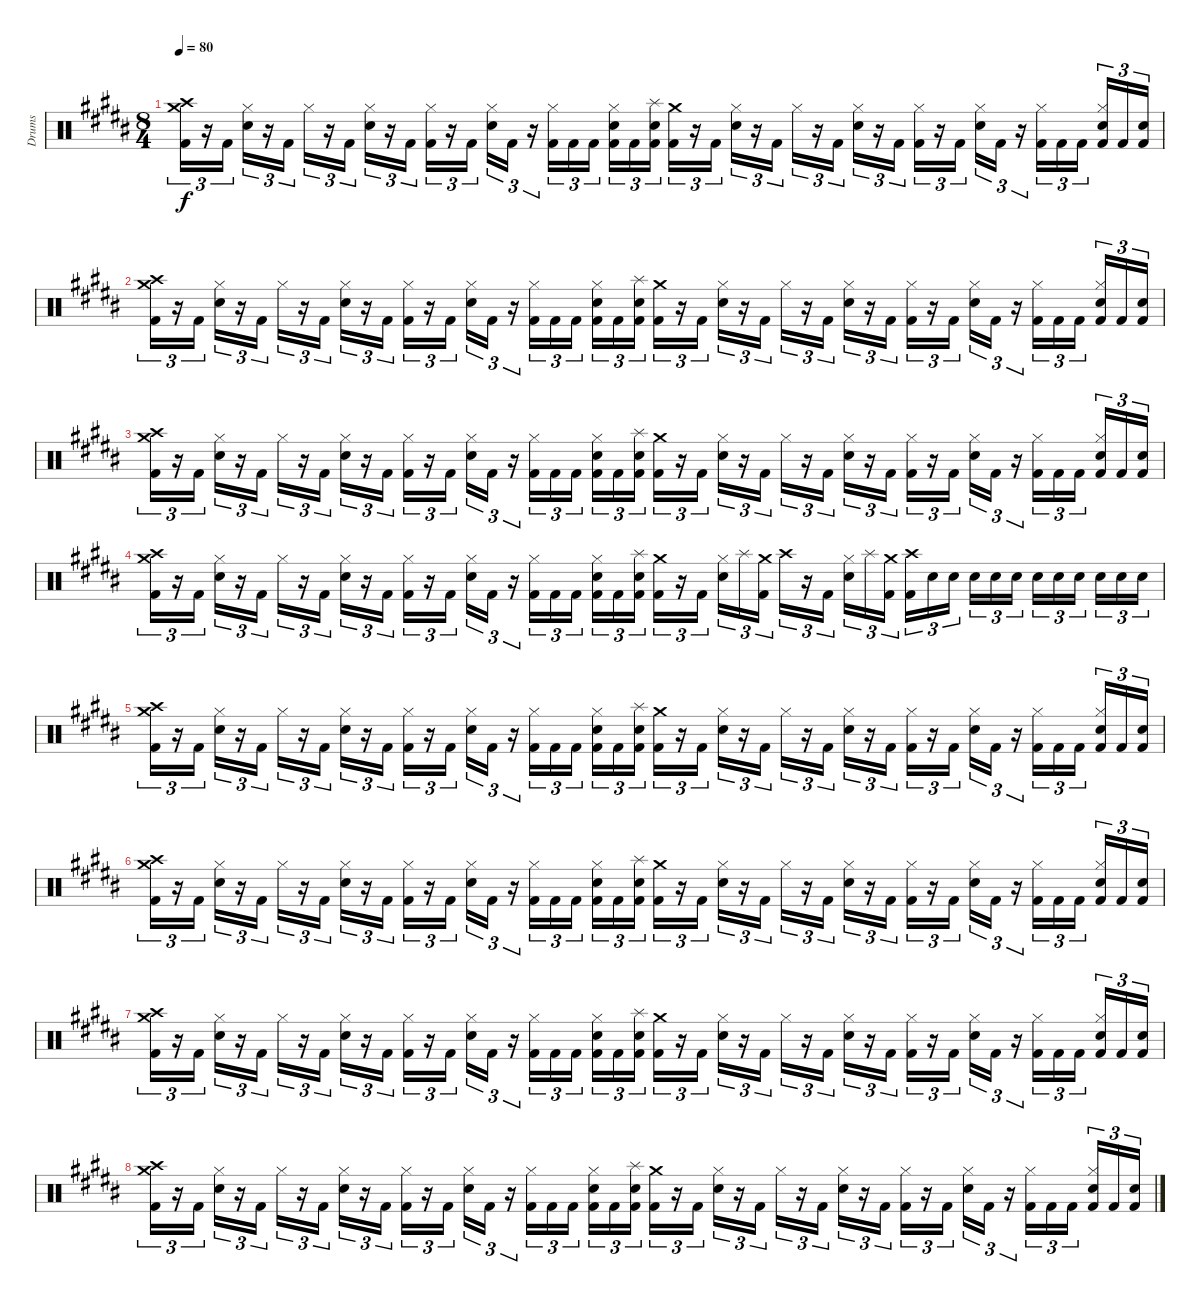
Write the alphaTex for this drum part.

\track ("Drums" "Drums") {instrument percussion}
\staff {score}
\articulation defaults
\ts (8 4)
\tempo 80
\clef neutral
\ks g#minor
("Crash medium (hit)" "Crash high (hit)" "Kick (hit) 2").16{tu (3 2) dy f} r.16{tu (3 2)} "Kick (hit) 2".16{tu (3 2)} ("Hi-Hat (closed)" "Snare (hit) 2").16{tu (3 2)} r.16{tu (3 2)} "Kick (hit) 2".16{tu (3 2)} "Hi-Hat (closed)".16{tu (3 2)} r.16{tu (3 2)} "Kick (hit) 2".16{tu (3 2)} ("Hi-Hat (closed)" "Snare (hit) 2").16{tu (3 2)} r.16{tu (3 2)} "Kick (hit) 2".16{tu (3 2)} ("Hi-Hat (closed)" "Kick (hit) 2").16{tu (3 2)} r.16{tu (3 2)} "Kick (hit) 2".16{tu (3 2)} ("Hi-Hat (closed)" "Snare (hit) 2").16{tu (3 2)} "Kick (hit) 2".16{tu (3 2)} r.16{tu (3 2)} ("Hi-Hat (closed)" "Kick (hit) 2").16{tu (3 2)} "Kick (hit) 2".16{tu (3 2)} "Kick (hit) 2".16{tu (3 2)} ("Hi-Hat (closed)" "Snare (hit) 2" "Kick (hit) 2").16{tu (3 2)} "Kick (hit) 2".16{tu (3 2)} ("Splash (hit)" "Snare (hit) 2" "Kick (hit) 2").16{tu (3 2)} ("Crash medium (hit)" "Kick (hit) 2").16{tu (3 2)} r.16{tu (3 2)} "Kick (hit) 2".16{tu (3 2)} ("Hi-Hat (closed)" "Snare (hit) 2").16{tu (3 2)} r.16{tu (3 2)} "Kick (hit) 2".16{tu (3 2)} "Hi-Hat (closed)".16{tu (3 2)} r.16{tu (3 2)} "Kick (hit) 2".16{tu (3 2)} ("Hi-Hat (closed)" "Snare (hit) 2").16{tu (3 2)} r.16{tu (3 2)} "Kick (hit) 2".16{tu (3 2)} ("Hi-Hat (closed)" "Kick (hit) 2").16{tu (3 2)} r.16{tu (3 2)} "Kick (hit) 2".16{tu (3 2)} ("Hi-Hat (closed)" "Snare (hit) 2").16{tu (3 2)} "Kick (hit) 2".16{tu (3 2)} r.16{tu (3 2)} ("Hi-Hat (closed)" "Kick (hit) 2").16{tu (3 2)} "Kick (hit) 2".16{tu (3 2)} "Kick (hit) 2".16{tu (3 2)} ("Hi-Hat (closed)" "Snare (hit) 2" "Kick (hit) 2").16{tu (3 2)} "Kick (hit) 2".16{tu (3 2)} ("Snare (hit) 2" "Kick (hit) 2").16{tu (3 2)} |
("Crash medium (hit)" "Crash high (hit)" "Kick (hit) 2").16{tu (3 2)} r.16{tu (3 2)} "Kick (hit) 2".16{tu (3 2)} ("Hi-Hat (closed)" "Snare (hit) 2").16{tu (3 2)} r.16{tu (3 2)} "Kick (hit) 2".16{tu (3 2)} "Hi-Hat (closed)".16{tu (3 2)} r.16{tu (3 2)} "Kick (hit) 2".16{tu (3 2)} ("Hi-Hat (closed)" "Snare (hit) 2").16{tu (3 2)} r.16{tu (3 2)} "Kick (hit) 2".16{tu (3 2)} ("Hi-Hat (closed)" "Kick (hit) 2").16{tu (3 2)} r.16{tu (3 2)} "Kick (hit) 2".16{tu (3 2)} ("Hi-Hat (closed)" "Snare (hit) 2").16{tu (3 2)} "Kick (hit) 2".16{tu (3 2)} r.16{tu (3 2)} ("Hi-Hat (closed)" "Kick (hit) 2").16{tu (3 2)} "Kick (hit) 2".16{tu (3 2)} "Kick (hit) 2".16{tu (3 2)} ("Hi-Hat (closed)" "Snare (hit) 2" "Kick (hit) 2").16{tu (3 2)} "Kick (hit) 2".16{tu (3 2)} ("Splash (hit)" "Snare (hit) 2" "Kick (hit) 2").16{tu (3 2)} ("Crash medium (hit)" "Kick (hit) 2").16{tu (3 2)} r.16{tu (3 2)} "Kick (hit) 2".16{tu (3 2)} ("Hi-Hat (closed)" "Snare (hit) 2").16{tu (3 2)} r.16{tu (3 2)} "Kick (hit) 2".16{tu (3 2)} "Hi-Hat (closed)".16{tu (3 2)} r.16{tu (3 2)} "Kick (hit) 2".16{tu (3 2)} ("Hi-Hat (closed)" "Snare (hit) 2").16{tu (3 2)} r.16{tu (3 2)} "Kick (hit) 2".16{tu (3 2)} ("Hi-Hat (closed)" "Kick (hit) 2").16{tu (3 2)} r.16{tu (3 2)} "Kick (hit) 2".16{tu (3 2)} ("Hi-Hat (closed)" "Snare (hit) 2").16{tu (3 2)} "Kick (hit) 2".16{tu (3 2)} r.16{tu (3 2)} ("Hi-Hat (closed)" "Kick (hit) 2").16{tu (3 2)} "Kick (hit) 2".16{tu (3 2)} "Kick (hit) 2".16{tu (3 2)} ("Hi-Hat (closed)" "Snare (hit) 2" "Kick (hit) 2").16{tu (3 2)} "Kick (hit) 2".16{tu (3 2)} ("Snare (hit) 2" "Kick (hit) 2").16{tu (3 2)} |
("Crash medium (hit)" "Crash high (hit)" "Kick (hit) 2").16{tu (3 2)} r.16{tu (3 2)} "Kick (hit) 2".16{tu (3 2)} ("Hi-Hat (closed)" "Snare (hit) 2").16{tu (3 2)} r.16{tu (3 2)} "Kick (hit) 2".16{tu (3 2)} "Hi-Hat (closed)".16{tu (3 2)} r.16{tu (3 2)} "Kick (hit) 2".16{tu (3 2)} ("Hi-Hat (closed)" "Snare (hit) 2").16{tu (3 2)} r.16{tu (3 2)} "Kick (hit) 2".16{tu (3 2)} ("Hi-Hat (closed)" "Kick (hit) 2").16{tu (3 2)} r.16{tu (3 2)} "Kick (hit) 2".16{tu (3 2)} ("Hi-Hat (closed)" "Snare (hit) 2").16{tu (3 2)} "Kick (hit) 2".16{tu (3 2)} r.16{tu (3 2)} ("Hi-Hat (closed)" "Kick (hit) 2").16{tu (3 2)} "Kick (hit) 2".16{tu (3 2)} "Kick (hit) 2".16{tu (3 2)} ("Hi-Hat (closed)" "Snare (hit) 2" "Kick (hit) 2").16{tu (3 2)} "Kick (hit) 2".16{tu (3 2)} ("Splash (hit)" "Snare (hit) 2" "Kick (hit) 2").16{tu (3 2)} ("Crash medium (hit)" "Kick (hit) 2").16{tu (3 2)} r.16{tu (3 2)} "Kick (hit) 2".16{tu (3 2)} ("Hi-Hat (closed)" "Snare (hit) 2").16{tu (3 2)} r.16{tu (3 2)} "Kick (hit) 2".16{tu (3 2)} "Hi-Hat (closed)".16{tu (3 2)} r.16{tu (3 2)} "Kick (hit) 2".16{tu (3 2)} ("Hi-Hat (closed)" "Snare (hit) 2").16{tu (3 2)} r.16{tu (3 2)} "Kick (hit) 2".16{tu (3 2)} ("Hi-Hat (closed)" "Kick (hit) 2").16{tu (3 2)} r.16{tu (3 2)} "Kick (hit) 2".16{tu (3 2)} ("Hi-Hat (closed)" "Snare (hit) 2").16{tu (3 2)} "Kick (hit) 2".16{tu (3 2)} r.16{tu (3 2)} ("Hi-Hat (closed)" "Kick (hit) 2").16{tu (3 2)} "Kick (hit) 2".16{tu (3 2)} "Kick (hit) 2".16{tu (3 2)} ("Hi-Hat (closed)" "Snare (hit) 2" "Kick (hit) 2").16{tu (3 2)} "Kick (hit) 2".16{tu (3 2)} ("Snare (hit) 2" "Kick (hit) 2").16{tu (3 2)} |
("Crash medium (hit)" "Crash high (hit)" "Kick (hit) 2").16{tu (3 2)} r.16{tu (3 2)} "Kick (hit) 2".16{tu (3 2)} ("Hi-Hat (closed)" "Snare (hit) 2").16{tu (3 2)} r.16{tu (3 2)} "Kick (hit) 2".16{tu (3 2)} "Hi-Hat (closed)".16{tu (3 2)} r.16{tu (3 2)} "Kick (hit) 2".16{tu (3 2)} ("Hi-Hat (closed)" "Snare (hit) 2").16{tu (3 2)} r.16{tu (3 2)} "Kick (hit) 2".16{tu (3 2)} ("Hi-Hat (closed)" "Kick (hit) 2").16{tu (3 2)} r.16{tu (3 2)} "Kick (hit) 2".16{tu (3 2)} ("Hi-Hat (closed)" "Snare (hit) 2").16{tu (3 2)} "Kick (hit) 2".16{tu (3 2)} r.16{tu (3 2)} ("Hi-Hat (closed)" "Kick (hit) 2").16{tu (3 2)} "Kick (hit) 2".16{tu (3 2)} "Kick (hit) 2".16{tu (3 2)} ("Hi-Hat (closed)" "Snare (hit) 2" "Kick (hit) 2").16{tu (3 2)} "Kick (hit) 2".16{tu (3 2)} ("Splash (hit)" "Snare (hit) 2" "Kick (hit) 2").16{tu (3 2)} ("Crash medium (hit)" "Kick (hit) 2").16{tu (3 2)} r.16{tu (3 2)} "Kick (hit) 2".16{tu (3 2)} ("Hi-Hat (closed)" "Snare (hit) 2").16{tu (3 2)} "Splash (hit)".16{tu (3 2)} ("Crash medium (hit)" "Kick (hit) 2").16{tu (3 2)} "Crash high (hit)".16{tu (3 2)} r.16{tu (3 2)} "Kick (hit) 2".16{tu (3 2)} ("Hi-Hat (closed)" "Snare (hit) 2").16{tu (3 2)} "Splash (hit)".16{tu (3 2)} ("Crash medium (hit)" "Kick (hit) 2").16{tu (3 2)} ("Crash high (hit)" "Kick (hit) 2").16{tu (3 2)} "Snare (hit) 2".16{tu (3 2)} "Snare (hit) 2".16{tu (3 2)} "Snare (hit) 2".16{tu (3 2)} "Snare (hit) 2".16{tu (3 2)} "Snare (hit) 2".16{tu (3 2)} "Snare (hit) 2".16{tu (3 2)} "Snare (hit) 2".16{tu (3 2)} "Snare (hit) 2".16{tu (3 2)} "Snare (hit) 2".16{tu (3 2)} "Snare (hit) 2".16{tu (3 2)} "Snare (hit) 2".16{tu (3 2)} |
("Crash medium (hit)" "Crash high (hit)" "Kick (hit) 2").16{tu (3 2)} r.16{tu (3 2)} "Kick (hit) 2".16{tu (3 2)} ("Hi-Hat (closed)" "Snare (hit) 2").16{tu (3 2)} r.16{tu (3 2)} "Kick (hit) 2".16{tu (3 2)} "Hi-Hat (closed)".16{tu (3 2)} r.16{tu (3 2)} "Kick (hit) 2".16{tu (3 2)} ("Hi-Hat (closed)" "Snare (hit) 2").16{tu (3 2)} r.16{tu (3 2)} "Kick (hit) 2".16{tu (3 2)} ("Hi-Hat (closed)" "Kick (hit) 2").16{tu (3 2)} r.16{tu (3 2)} "Kick (hit) 2".16{tu (3 2)} ("Hi-Hat (closed)" "Snare (hit) 2").16{tu (3 2)} "Kick (hit) 2".16{tu (3 2)} r.16{tu (3 2)} ("Hi-Hat (closed)" "Kick (hit) 2").16{tu (3 2)} "Kick (hit) 2".16{tu (3 2)} "Kick (hit) 2".16{tu (3 2)} ("Hi-Hat (closed)" "Snare (hit) 2" "Kick (hit) 2").16{tu (3 2)} "Kick (hit) 2".16{tu (3 2)} ("Splash (hit)" "Snare (hit) 2" "Kick (hit) 2").16{tu (3 2)} ("Crash medium (hit)" "Kick (hit) 2").16{tu (3 2)} r.16{tu (3 2)} "Kick (hit) 2".16{tu (3 2)} ("Hi-Hat (closed)" "Snare (hit) 2").16{tu (3 2)} r.16{tu (3 2)} "Kick (hit) 2".16{tu (3 2)} "Hi-Hat (closed)".16{tu (3 2)} r.16{tu (3 2)} "Kick (hit) 2".16{tu (3 2)} ("Hi-Hat (closed)" "Snare (hit) 2").16{tu (3 2)} r.16{tu (3 2)} "Kick (hit) 2".16{tu (3 2)} ("Hi-Hat (closed)" "Kick (hit) 2").16{tu (3 2)} r.16{tu (3 2)} "Kick (hit) 2".16{tu (3 2)} ("Hi-Hat (closed)" "Snare (hit) 2").16{tu (3 2)} "Kick (hit) 2".16{tu (3 2)} r.16{tu (3 2)} ("Hi-Hat (closed)" "Kick (hit) 2").16{tu (3 2)} "Kick (hit) 2".16{tu (3 2)} "Kick (hit) 2".16{tu (3 2)} ("Hi-Hat (closed)" "Snare (hit) 2" "Kick (hit) 2").16{tu (3 2)} "Kick (hit) 2".16{tu (3 2)} ("Snare (hit) 2" "Kick (hit) 2").16{tu (3 2)} |
("Crash medium (hit)" "Crash high (hit)" "Kick (hit) 2").16{tu (3 2)} r.16{tu (3 2)} "Kick (hit) 2".16{tu (3 2)} ("Hi-Hat (closed)" "Snare (hit) 2").16{tu (3 2)} r.16{tu (3 2)} "Kick (hit) 2".16{tu (3 2)} "Hi-Hat (closed)".16{tu (3 2)} r.16{tu (3 2)} "Kick (hit) 2".16{tu (3 2)} ("Hi-Hat (closed)" "Snare (hit) 2").16{tu (3 2)} r.16{tu (3 2)} "Kick (hit) 2".16{tu (3 2)} ("Hi-Hat (closed)" "Kick (hit) 2").16{tu (3 2)} r.16{tu (3 2)} "Kick (hit) 2".16{tu (3 2)} ("Hi-Hat (closed)" "Snare (hit) 2").16{tu (3 2)} "Kick (hit) 2".16{tu (3 2)} r.16{tu (3 2)} ("Hi-Hat (closed)" "Kick (hit) 2").16{tu (3 2)} "Kick (hit) 2".16{tu (3 2)} "Kick (hit) 2".16{tu (3 2)} ("Hi-Hat (closed)" "Snare (hit) 2" "Kick (hit) 2").16{tu (3 2)} "Kick (hit) 2".16{tu (3 2)} ("Splash (hit)" "Snare (hit) 2" "Kick (hit) 2").16{tu (3 2)} ("Crash medium (hit)" "Kick (hit) 2").16{tu (3 2)} r.16{tu (3 2)} "Kick (hit) 2".16{tu (3 2)} ("Hi-Hat (closed)" "Snare (hit) 2").16{tu (3 2)} r.16{tu (3 2)} "Kick (hit) 2".16{tu (3 2)} "Hi-Hat (closed)".16{tu (3 2)} r.16{tu (3 2)} "Kick (hit) 2".16{tu (3 2)} ("Hi-Hat (closed)" "Snare (hit) 2").16{tu (3 2)} r.16{tu (3 2)} "Kick (hit) 2".16{tu (3 2)} ("Hi-Hat (closed)" "Kick (hit) 2").16{tu (3 2)} r.16{tu (3 2)} "Kick (hit) 2".16{tu (3 2)} ("Hi-Hat (closed)" "Snare (hit) 2").16{tu (3 2)} "Kick (hit) 2".16{tu (3 2)} r.16{tu (3 2)} ("Hi-Hat (closed)" "Kick (hit) 2").16{tu (3 2)} "Kick (hit) 2".16{tu (3 2)} "Kick (hit) 2".16{tu (3 2)} ("Hi-Hat (closed)" "Snare (hit) 2" "Kick (hit) 2").16{tu (3 2)} "Kick (hit) 2".16{tu (3 2)} ("Snare (hit) 2" "Kick (hit) 2").16{tu (3 2)} |
("Crash medium (hit)" "Crash high (hit)" "Kick (hit) 2").16{tu (3 2)} r.16{tu (3 2)} "Kick (hit) 2".16{tu (3 2)} ("Hi-Hat (closed)" "Snare (hit) 2").16{tu (3 2)} r.16{tu (3 2)} "Kick (hit) 2".16{tu (3 2)} "Hi-Hat (closed)".16{tu (3 2)} r.16{tu (3 2)} "Kick (hit) 2".16{tu (3 2)} ("Hi-Hat (closed)" "Snare (hit) 2").16{tu (3 2)} r.16{tu (3 2)} "Kick (hit) 2".16{tu (3 2)} ("Hi-Hat (closed)" "Kick (hit) 2").16{tu (3 2)} r.16{tu (3 2)} "Kick (hit) 2".16{tu (3 2)} ("Hi-Hat (closed)" "Snare (hit) 2").16{tu (3 2)} "Kick (hit) 2".16{tu (3 2)} r.16{tu (3 2)} ("Hi-Hat (closed)" "Kick (hit) 2").16{tu (3 2)} "Kick (hit) 2".16{tu (3 2)} "Kick (hit) 2".16{tu (3 2)} ("Hi-Hat (closed)" "Snare (hit) 2" "Kick (hit) 2").16{tu (3 2)} "Kick (hit) 2".16{tu (3 2)} ("Splash (hit)" "Snare (hit) 2" "Kick (hit) 2").16{tu (3 2)} ("Crash medium (hit)" "Kick (hit) 2").16{tu (3 2)} r.16{tu (3 2)} "Kick (hit) 2".16{tu (3 2)} ("Hi-Hat (closed)" "Snare (hit) 2").16{tu (3 2)} r.16{tu (3 2)} "Kick (hit) 2".16{tu (3 2)} "Hi-Hat (closed)".16{tu (3 2)} r.16{tu (3 2)} "Kick (hit) 2".16{tu (3 2)} ("Hi-Hat (closed)" "Snare (hit) 2").16{tu (3 2)} r.16{tu (3 2)} "Kick (hit) 2".16{tu (3 2)} ("Hi-Hat (closed)" "Kick (hit) 2").16{tu (3 2)} r.16{tu (3 2)} "Kick (hit) 2".16{tu (3 2)} ("Hi-Hat (closed)" "Snare (hit) 2").16{tu (3 2)} "Kick (hit) 2".16{tu (3 2)} r.16{tu (3 2)} ("Hi-Hat (closed)" "Kick (hit) 2").16{tu (3 2)} "Kick (hit) 2".16{tu (3 2)} "Kick (hit) 2".16{tu (3 2)} ("Hi-Hat (closed)" "Snare (hit) 2" "Kick (hit) 2").16{tu (3 2)} "Kick (hit) 2".16{tu (3 2)} ("Snare (hit) 2" "Kick (hit) 2").16{tu (3 2)} |
("Crash medium (hit)" "Crash high (hit)" "Kick (hit) 2").16{tu (3 2)} r.16{tu (3 2)} "Kick (hit) 2".16{tu (3 2)} ("Hi-Hat (closed)" "Snare (hit) 2").16{tu (3 2)} r.16{tu (3 2)} "Kick (hit) 2".16{tu (3 2)} "Hi-Hat (closed)".16{tu (3 2)} r.16{tu (3 2)} "Kick (hit) 2".16{tu (3 2)} ("Hi-Hat (closed)" "Snare (hit) 2").16{tu (3 2)} r.16{tu (3 2)} "Kick (hit) 2".16{tu (3 2)} ("Hi-Hat (closed)" "Kick (hit) 2").16{tu (3 2)} r.16{tu (3 2)} "Kick (hit) 2".16{tu (3 2)} ("Hi-Hat (closed)" "Snare (hit) 2").16{tu (3 2)} "Kick (hit) 2".16{tu (3 2)} r.16{tu (3 2)} ("Hi-Hat (closed)" "Kick (hit) 2").16{tu (3 2)} "Kick (hit) 2".16{tu (3 2)} "Kick (hit) 2".16{tu (3 2)} ("Hi-Hat (closed)" "Snare (hit) 2" "Kick (hit) 2").16{tu (3 2)} "Kick (hit) 2".16{tu (3 2)} ("Splash (hit)" "Snare (hit) 2" "Kick (hit) 2").16{tu (3 2)} ("Crash medium (hit)" "Kick (hit) 2").16{tu (3 2)} r.16{tu (3 2)} "Kick (hit) 2".16{tu (3 2)} ("Hi-Hat (closed)" "Snare (hit) 2").16{tu (3 2)} r.16{tu (3 2)} "Kick (hit) 2".16{tu (3 2)} "Hi-Hat (closed)".16{tu (3 2)} r.16{tu (3 2)} "Kick (hit) 2".16{tu (3 2)} ("Hi-Hat (closed)" "Snare (hit) 2").16{tu (3 2)} r.16{tu (3 2)} "Kick (hit) 2".16{tu (3 2)} ("Hi-Hat (closed)" "Kick (hit) 2").16{tu (3 2)} r.16{tu (3 2)} "Kick (hit) 2".16{tu (3 2)} ("Hi-Hat (closed)" "Snare (hit) 2").16{tu (3 2)} "Kick (hit) 2".16{tu (3 2)} r.16{tu (3 2)} ("Hi-Hat (closed)" "Kick (hit) 2").16{tu (3 2)} "Kick (hit) 2".16{tu (3 2)} "Kick (hit) 2".16{tu (3 2)} ("Hi-Hat (closed)" "Snare (hit) 2" "Kick (hit) 2").16{tu (3 2)} "Kick (hit) 2".16{tu (3 2)} ("Snare (hit) 2" "Kick (hit) 2").16{tu (3 2)}
